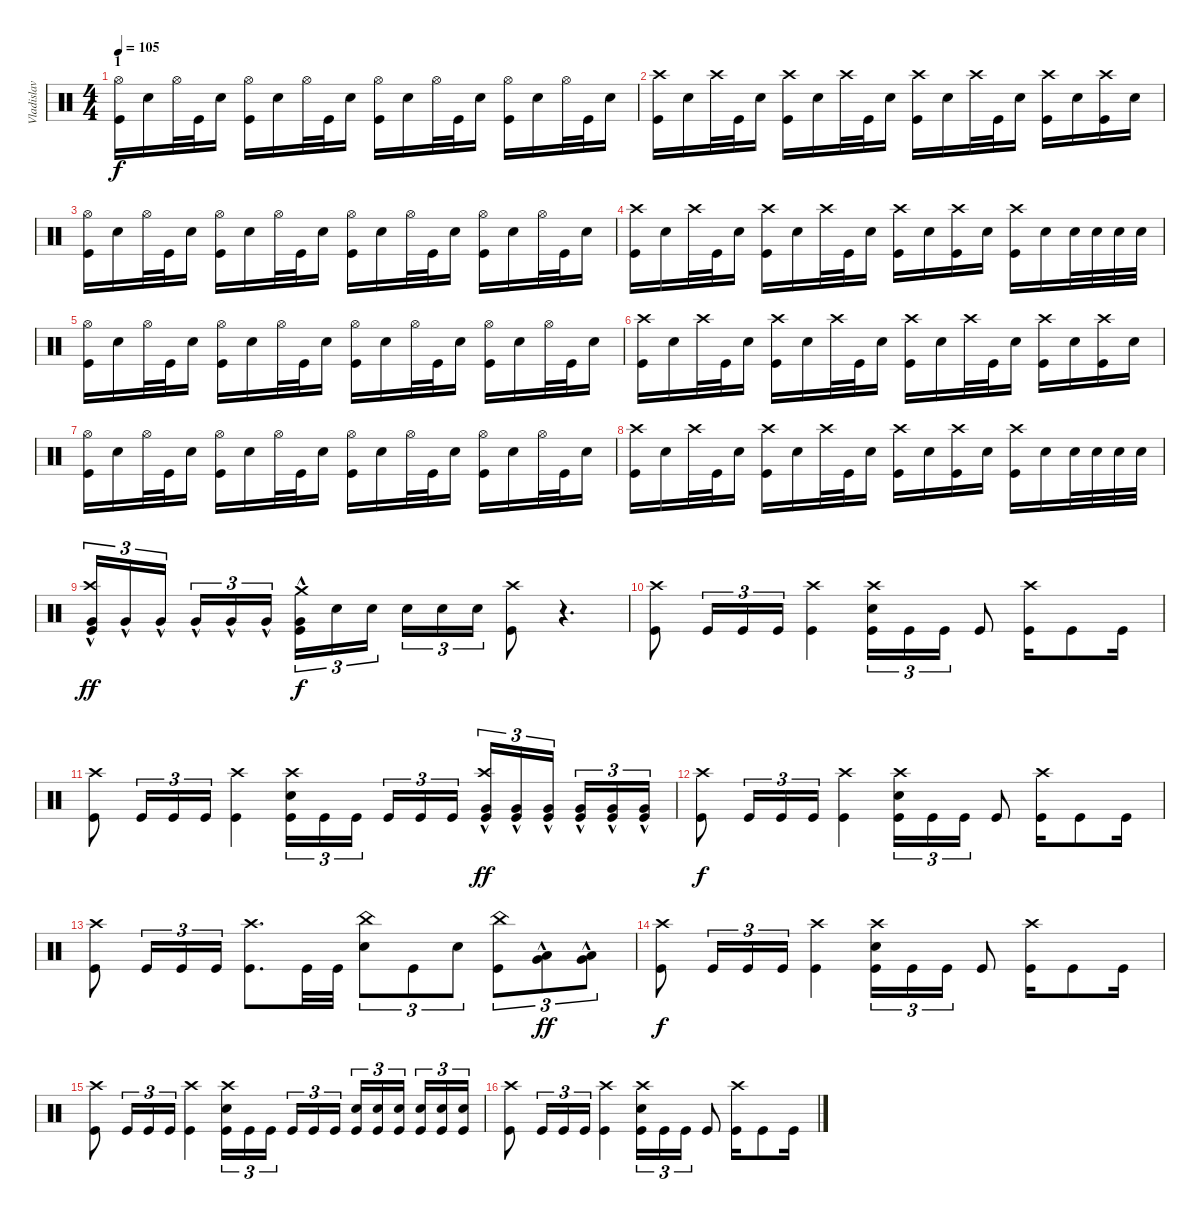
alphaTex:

\track ("Vladislav Ulasevish" "Vladislav ") {instrument percussion}
\staff {score}
\articulation defaults
\ts (4 4)
\section ("" "1")
\tempo 105
\clef neutral
\ks c
("Kick (hit)" "Hi-Hat (open)").16{dy f} "Snare (hit) 2".16 "Hi-Hat (open)".32 "Kick (hit)".32 "Snare (hit) 2".16 ("Kick (hit)" "Hi-Hat (open)").16 "Snare (hit) 2".16 "Hi-Hat (open)".32 "Kick (hit)".32 "Snare (hit) 2".16 ("Kick (hit)" "Hi-Hat (open)").16 "Snare (hit) 2".16 "Hi-Hat (open)".32 "Kick (hit)".32 "Snare (hit) 2".16 ("Kick (hit)" "Hi-Hat (open)").16 "Snare (hit) 2".16 "Hi-Hat (open)".32 "Kick (hit)".32 "Snare (hit) 2".16 |
("Kick (hit)" "Crash high (hit)").16 "Snare (hit) 2".16 "Crash high (hit)".32 "Kick (hit)".32 "Snare (hit) 2".16 ("Kick (hit)" "Crash high (hit)").16 "Snare (hit) 2".16 "Crash high (hit)".32 "Kick (hit)".32 "Snare (hit) 2".16 ("Kick (hit)" "Crash high (hit)").16 "Snare (hit) 2".16 "Crash high (hit)".32 "Kick (hit)".32 "Snare (hit) 2".16 ("Kick (hit)" "Crash high (hit)").16 "Snare (hit) 2".16 ("Kick (hit)" "Crash high (hit)").16 "Snare (hit) 2".16 |
("Kick (hit)" "Hi-Hat (open)").16 "Snare (hit) 2".16 "Hi-Hat (open)".32 "Kick (hit)".32 "Snare (hit) 2".16 ("Kick (hit)" "Hi-Hat (open)").16 "Snare (hit) 2".16 "Hi-Hat (open)".32 "Kick (hit)".32 "Snare (hit) 2".16 ("Kick (hit)" "Hi-Hat (open)").16 "Snare (hit) 2".16 "Hi-Hat (open)".32 "Kick (hit)".32 "Snare (hit) 2".16 ("Kick (hit)" "Hi-Hat (open)").16 "Snare (hit) 2".16 "Hi-Hat (open)".32 "Kick (hit)".32 "Snare (hit) 2".16 |
("Kick (hit)" "Crash high (hit)").16 "Snare (hit) 2".16 "Crash high (hit)".32 "Kick (hit)".32 "Snare (hit) 2".16 ("Kick (hit)" "Crash high (hit)").16 "Snare (hit) 2".16 "Crash high (hit)".32 "Kick (hit)".32 "Snare (hit) 2".16 ("Kick (hit)" "Crash high (hit)").16 "Snare (hit) 2".16 ("Kick (hit)" "Crash high (hit)").16 "Snare (hit) 2".16 ("Kick (hit)" "Crash high (hit)").16 "Snare (hit) 2".16 "Snare (hit) 2".32 "Snare (hit) 2".32 "Snare (hit) 2".32 "Snare (hit) 2".32 |
("Kick (hit)" "Hi-Hat (open)").16 "Snare (hit) 2".16 "Hi-Hat (open)".32 "Kick (hit)".32 "Snare (hit) 2".16 ("Kick (hit)" "Hi-Hat (open)").16 "Snare (hit) 2".16 "Hi-Hat (open)".32 "Kick (hit)".32 "Snare (hit) 2".16 ("Kick (hit)" "Hi-Hat (open)").16 "Snare (hit) 2".16 "Hi-Hat (open)".32 "Kick (hit)".32 "Snare (hit) 2".16 ("Kick (hit)" "Hi-Hat (open)").16 "Snare (hit) 2".16 "Hi-Hat (open)".32 "Kick (hit)".32 "Snare (hit) 2".16 |
("Kick (hit)" "Crash high (hit)").16 "Snare (hit) 2".16 "Crash high (hit)".32 "Kick (hit)".32 "Snare (hit) 2".16 ("Kick (hit)" "Crash high (hit)").16 "Snare (hit) 2".16 "Crash high (hit)".32 "Kick (hit)".32 "Snare (hit) 2".16 ("Kick (hit)" "Crash high (hit)").16 "Snare (hit) 2".16 "Crash high (hit)".32 "Kick (hit)".32 "Snare (hit) 2".16 ("Kick (hit)" "Crash high (hit)").16 "Snare (hit) 2".16 ("Kick (hit)" "Crash high (hit)").16 "Snare (hit) 2".16 |
("Kick (hit)" "Hi-Hat (open)").16 "Snare (hit) 2".16 "Hi-Hat (open)".32 "Kick (hit)".32 "Snare (hit) 2".16 ("Kick (hit)" "Hi-Hat (open)").16 "Snare (hit) 2".16 "Hi-Hat (open)".32 "Kick (hit)".32 "Snare (hit) 2".16 ("Kick (hit)" "Hi-Hat (open)").16 "Snare (hit) 2".16 "Hi-Hat (open)".32 "Kick (hit)".32 "Snare (hit) 2".16 ("Kick (hit)" "Hi-Hat (open)").16 "Snare (hit) 2".16 "Hi-Hat (open)".32 "Kick (hit)".32 "Snare (hit) 2".16 |
("Kick (hit)" "Crash high (hit)").16 "Snare (hit) 2".16 "Crash high (hit)".32 "Kick (hit)".32 "Snare (hit) 2".16 ("Kick (hit)" "Crash high (hit)").16 "Snare (hit) 2".16 "Crash high (hit)".32 "Kick (hit)".32 "Snare (hit) 2".16 ("Kick (hit)" "Crash high (hit)").16 "Snare (hit) 2".16 ("Kick (hit)" "Crash high (hit)").16 "Snare (hit) 2".16 ("Kick (hit)" "Crash high (hit)").16 "Snare (hit) 2".16 "Snare (hit) 2".32 "Snare (hit) 2".32 "Snare (hit) 2".32 "Snare (hit) 2".32 |
("Kick (hit)" "Very Low Tom (hit)"{hac} "Crash high (hit)").16{tu (3 2) dy ff} "Very Low Tom (hit)"{hac}.16{tu (3 2)} "Very Low Tom (hit)"{hac}.16{tu (3 2)} "Very Low Tom (hit)"{hac}.16{tu (3 2)} "Very Low Tom (hit)"{hac}.16{tu (3 2)} "Very Low Tom (hit)"{hac}.16{tu (3 2)} ("Very Low Tom (hit)"{hac} "Kick (hit)" "Crash medium (hit)").16{tu (3 2) dy f} "Snare (hit) 2".16{tu (3 2)} "Snare (hit) 2".16{tu (3 2)} "Snare (hit) 2".16{tu (3 2)} "Snare (hit) 2".16{tu (3 2)} "Snare (hit) 2".16{tu (3 2)} ("Kick (hit)" "Crash high (hit)").8 r.4{d} |
\section ("" "")
("Kick (hit)" "Crash high (hit)").8 "Kick (hit)".16{tu (3 2)} "Kick (hit)".16{tu (3 2)} "Kick (hit)".16{tu (3 2)} ("Kick (hit)" "Crash high (hit)").4 ("Kick (hit)" "Snare (hit) 2" "Crash high (hit)").16{tu (3 2)} "Kick (hit)".16{tu (3 2)} "Kick (hit)".16{tu (3 2)} "Kick (hit)".8 ("Kick (hit)" "Crash high (hit)").16 "Kick (hit)".8 "Kick (hit)".16 |
("Kick (hit)" "Crash high (hit)").8 "Kick (hit)".16{tu (3 2)} "Kick (hit)".16{tu (3 2)} "Kick (hit)".16{tu (3 2)} ("Kick (hit)" "Crash high (hit)").4 ("Kick (hit)" "Snare (hit) 2" "Crash high (hit)").16{tu (3 2)} "Kick (hit)".16{tu (3 2)} "Kick (hit)".16{tu (3 2)} "Kick (hit)".16{tu (3 2)} "Kick (hit)".16{tu (3 2)} "Kick (hit)".16{tu (3 2)} ("Kick (hit)" "Crash high (hit)" "Very Low Tom (hit)"{hac}).16{tu (3 2) dy ff} ("Kick (hit)" "Very Low Tom (hit)"{hac}).16{tu (3 2)} ("Kick (hit)" "Very Low Tom (hit)"{hac}).16{tu (3 2)} ("Kick (hit)" "Very Low Tom (hit)"{hac}).16{tu (3 2)} ("Kick (hit)" "Very Low Tom (hit)"{hac}).16{tu (3 2)} ("Kick (hit)" "Very Low Tom (hit)"{hac}).16{tu (3 2)} |
("Kick (hit)" "Crash high (hit)").8{dy f} "Kick (hit)".16{tu (3 2)} "Kick (hit)".16{tu (3 2)} "Kick (hit)".16{tu (3 2)} ("Kick (hit)" "Crash high (hit)").4 ("Kick (hit)" "Snare (hit) 2" "Crash high (hit)").16{tu (3 2)} "Kick (hit)".16{tu (3 2)} "Kick (hit)".16{tu (3 2)} "Kick (hit)".8 ("Kick (hit)" "Crash high (hit)").16 "Kick (hit)".8 "Kick (hit)".16 |
("Kick (hit)" "Crash high (hit)").8 "Kick (hit)".16{tu (3 2)} "Kick (hit)".16{tu (3 2)} "Kick (hit)".16{tu (3 2)} ("Kick (hit)" "Crash high (hit)").8{d} "Kick (hit)".32 "Kick (hit)".32 ("Snare (hit) 2" "China (hit)").8{tu (3 2)} "Kick (hit)".8{tu (3 2)} "Snare (hit) 2".8{tu (3 2)} ("China (hit)" "Kick (hit)").8{tu (3 2)} ("Low Tom (hit)"{hac} "Very Low Tom (hit)"{hac}).8{tu (3 2) dy ff} ("Very Low Tom (hit)"{hac} "Low Floor Tom (hit)"{hac}).8{tu (3 2)} |
("Kick (hit)" "Crash high (hit)").8{dy f} "Kick (hit)".16{tu (3 2)} "Kick (hit)".16{tu (3 2)} "Kick (hit)".16{tu (3 2)} ("Kick (hit)" "Crash high (hit)").4 ("Kick (hit)" "Snare (hit) 2" "Crash high (hit)").16{tu (3 2)} "Kick (hit)".16{tu (3 2)} "Kick (hit)".16{tu (3 2)} "Kick (hit)".8 ("Kick (hit)" "Crash high (hit)").16 "Kick (hit)".8 "Kick (hit)".16 |
("Kick (hit)" "Crash high (hit)").8 "Kick (hit)".16{tu (3 2)} "Kick (hit)".16{tu (3 2)} "Kick (hit)".16{tu (3 2)} ("Kick (hit)" "Crash high (hit)").4 ("Kick (hit)" "Snare (hit) 2" "Crash high (hit)").16{tu (3 2)} "Kick (hit)".16{tu (3 2)} "Kick (hit)".16{tu (3 2)} "Kick (hit)".16{tu (3 2)} "Kick (hit)".16{tu (3 2)} "Kick (hit)".16{tu (3 2)} ("Kick (hit)" "Snare (hit) 2").16{tu (3 2)} ("Kick (hit)" "Snare (hit) 2").16{tu (3 2)} ("Kick (hit)" "Snare (hit) 2").16{tu (3 2)} ("Kick (hit)" "Snare (hit) 2").16{tu (3 2)} ("Kick (hit)" "Snare (hit) 2").16{tu (3 2)} ("Kick (hit)" "Snare (hit) 2").16{tu (3 2)} |
("Kick (hit)" "Crash high (hit)").8 "Kick (hit)".16{tu (3 2)} "Kick (hit)".16{tu (3 2)} "Kick (hit)".16{tu (3 2)} ("Kick (hit)" "Crash high (hit)").4 ("Kick (hit)" "Snare (hit) 2" "Crash high (hit)").16{tu (3 2)} "Kick (hit)".16{tu (3 2)} "Kick (hit)".16{tu (3 2)} "Kick (hit)".8 ("Kick (hit)" "Crash high (hit)").16 "Kick (hit)".8 "Kick (hit)".16
